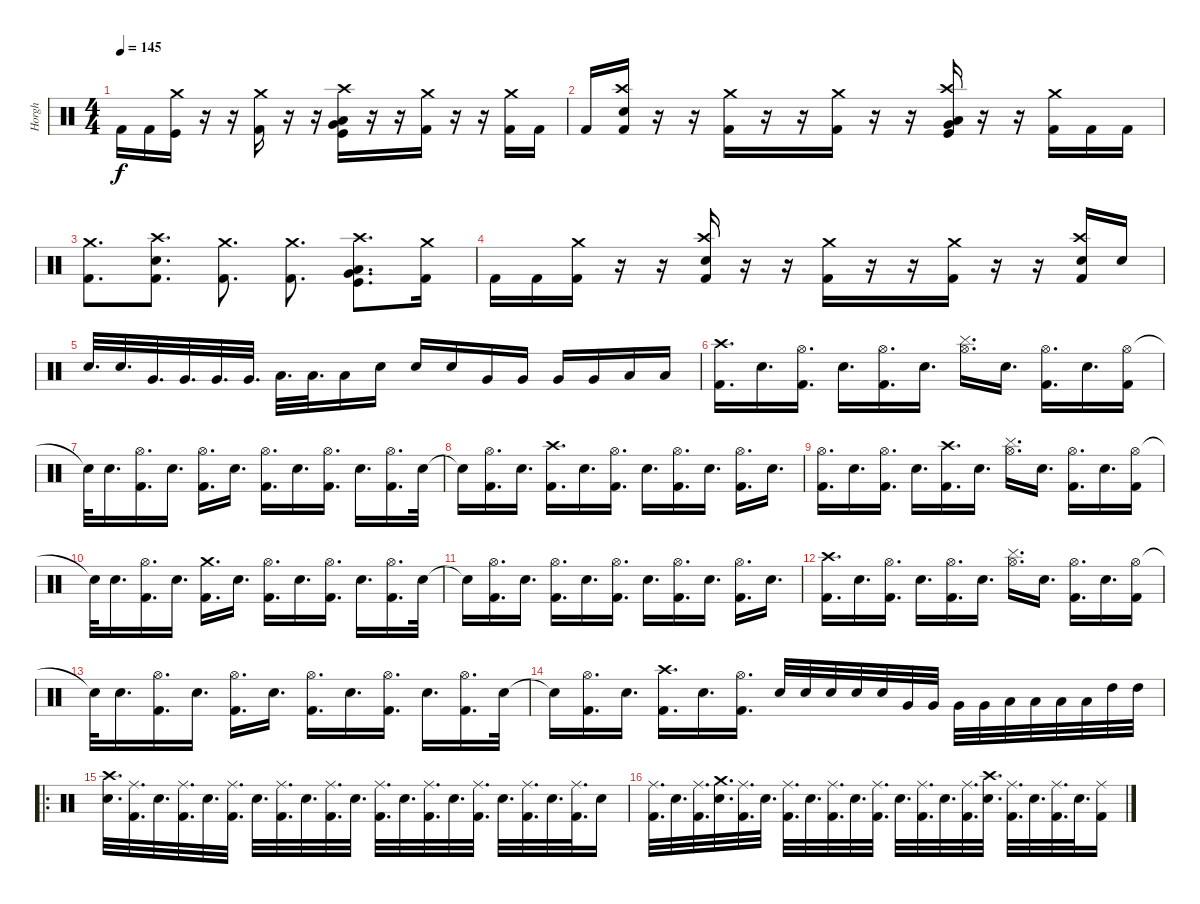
\track ("Horgh" "Horgh") {instrument percussion}
\staff {score}
\articulation defaults
\ts (4 4)
\tempo 145
\clef neutral
\ks c "Kick (hit) 2".16{dy f} "Kick (hit) 2".16
("Crash medium (hit)" "Kick (hit)").16 r.16 r.16 ("Crash medium (hit)" "Kick (hit) 2").16 r.16 r.16 ("Crash high (hit)" "Low Tom (hit)" "Very Low Tom (hit)" "Kick (hit)").16 r.16 r.16 ("Crash medium (hit)" "Kick (hit) 2").16 r.16 r.16 ("Crash medium (hit)" "Kick (hit) 2").16 "Kick (hit) 2".16 |
"Kick (hit) 2".16 ("Crash high (hit)" "Snare (hit) 2" "Kick (hit) 2").16 r.16 r.16 ("Crash medium (hit)" "Kick (hit) 2").16 r.16 r.16 ("Crash medium (hit)" "Kick (hit) 2").16 r.16 r.16 ("Crash high (hit)" "Low Tom (hit)" "Very Low Tom (hit)" "Kick (hit)").16 r.16 r.16 ("Crash medium (hit)" "Kick (hit) 2").16 "Kick (hit) 2".16 "Kick (hit) 2".16 |
("Crash medium (hit)" "Kick (hit) 2").8{d} ("Crash high (hit)" "Snare (hit) 2" "Kick (hit) 2").8{d} ("Crash medium (hit)" "Kick (hit) 2").8{d} ("Crash medium (hit)" "Kick (hit) 2").8{d} ("Crash high (hit)" "Low Tom (hit)" "Very Low Tom (hit)" "Kick (hit)").8{d} ("Crash medium (hit)" "Kick (hit) 2").16 |
"Kick (hit) 2".16 "Kick (hit) 2".16 ("Crash medium (hit)" "Kick (hit) 2").16 r.16 r.16 ("Crash high (hit)" "Snare (hit) 2" "Kick (hit) 2").16 r.16 r.16 ("Crash medium (hit)" "Kick (hit) 2").16 r.16 r.16 ("Crash medium (hit)" "Kick (hit) 2").16 r.16 r.16 ("Crash high (hit)" "Snare (hit) 2" "Kick (hit) 2").16 "Snare (hit) 2".16 |
"Snare (hit) 2".32{d} "Snare (hit) 2".32{d} "Very Low Tom (hit)".32{d} "Very Low Tom (hit)".32{d} "Very Low Tom (hit)".32{d} "Very Low Tom (hit)".32{d} "Low Tom (hit)".32{d} "Low Tom (hit)".32{d} "Low Tom (hit)".16 "Snare (hit) 2".16 "Snare (hit) 2".16 "Snare (hit) 2".16 "Very Low Tom (hit)".16 "Very Low Tom (hit)".16 "Very Low Tom (hit)".16 "Very Low Tom (hit)".16 "Low Tom (hit)".16 "Low Tom (hit)".16 |
("Crash high (hit)" "Kick (hit) 2").16{d} "Electric Snare (hit)".16{d} ("Hi-Hat (open)" "Kick (hit) 2").16{d} "Electric Snare (hit)".16{d} ("Hi-Hat (open)" "Kick (hit) 2").16{d} "Electric Snare (hit)".16{d} ("Hi-Hat (open)" "Cymbal (hit)").16{d} "Electric Snare (hit)".16{d} ("Hi-Hat (open)" "Kick (hit) 2").16{d} "Electric Snare (hit)".16{d} ("Hi-Hat (open)" "Kick (hit) 2").16 |
"Snare (hit)"{t}.32 "Electric Snare (hit)".16{d} ("Hi-Hat (open)" "Kick (hit) 2").16{d} "Electric Snare (hit)".16{d} ("Hi-Hat (open)" "Kick (hit) 2").16{d} "Electric Snare (hit)".16{d} ("Hi-Hat (open)" "Kick (hit) 2").16{d} "Electric Snare (hit)".16{d} ("Hi-Hat (open)" "Kick (hit) 2").16{d} "Electric Snare (hit)".16{d} ("Hi-Hat (open)" "Kick (hit) 2").16{d} "Electric Snare (hit)".32 |
"Electric Snare (hit)"{t}.16 ("Hi-Hat (open)" "Kick (hit) 2").16{d} "Electric Snare (hit)".16{d} ("Crash high (hit)" "Kick (hit) 2").16{d} "Electric Snare (hit)".16{d} ("Hi-Hat (open)" "Kick (hit) 2").16{d} "Electric Snare (hit)".16{d} ("Hi-Hat (open)" "Kick (hit) 2").16{d} "Electric Snare (hit)".16{d} ("Hi-Hat (open)" "Kick (hit) 2").16{d} "Electric Snare (hit)".16{d} |
("Hi-Hat (open)" "Kick (hit) 2").16{d} "Electric Snare (hit)".16{d} ("Hi-Hat (open)" "Kick (hit) 2").16{d} "Electric Snare (hit)".16{d} ("Crash high (hit)" "Kick (hit) 2").16{d} "Electric Snare (hit)".16{d} ("Hi-Hat (open)" "Cymbal (hit)").16{d} "Electric Snare (hit)".16{d} ("Hi-Hat (open)" "Kick (hit) 2").16{d} "Electric Snare (hit)".16{d} ("Hi-Hat (open)" "Kick (hit) 2").16 |
"Snare (hit)"{t}.32 "Electric Snare (hit)".16{d} ("Hi-Hat (open)" "Kick (hit) 2").16{d} "Electric Snare (hit)".16{d} ("Crash medium (hit)" "Kick (hit) 2").16{d} "Electric Snare (hit)".16{d} ("Hi-Hat (open)" "Kick (hit) 2").16{d} "Electric Snare (hit)".16{d} ("Hi-Hat (open)" "Kick (hit) 2").16{d} "Electric Snare (hit)".16{d} ("Hi-Hat (open)" "Kick (hit) 2").16{d} "Electric Snare (hit)".32 |
"Electric Snare (hit)"{t}.16 ("Hi-Hat (open)" "Kick (hit) 2").16{d} "Electric Snare (hit)".16{d} ("Hi-Hat (open)" "Kick (hit) 2").16{d} "Electric Snare (hit)".16{d} ("Hi-Hat (open)" "Kick (hit) 2").16{d} "Electric Snare (hit)".16{d} ("Hi-Hat (open)" "Kick (hit) 2").16{d} "Electric Snare (hit)".16{d} ("Hi-Hat (open)" "Kick (hit) 2").16{d} "Electric Snare (hit)".16{d} |
("Crash high (hit)" "Kick (hit) 2").16{d} "Electric Snare (hit)".16{d} ("Hi-Hat (open)" "Kick (hit) 2").16{d} "Electric Snare (hit)".16{d} ("Hi-Hat (open)" "Kick (hit) 2").16{d} "Electric Snare (hit)".16{d} ("Hi-Hat (open)" "Cymbal (hit)").16{d} "Electric Snare (hit)".16{d} ("Hi-Hat (open)" "Kick (hit) 2").16{d} "Electric Snare (hit)".16{d} ("Hi-Hat (open)" "Kick (hit) 2").16 |
"Snare (hit)"{t}.32 "Electric Snare (hit)".16{d} ("Hi-Hat (open)" "Kick (hit) 2").16{d} "Electric Snare (hit)".16{d} ("Hi-Hat (open)" "Kick (hit) 2").16{d} "Electric Snare (hit)".16{d} ("Hi-Hat (open)" "Kick (hit) 2").16{d} "Electric Snare (hit)".16{d} ("Hi-Hat (open)" "Kick (hit) 2").16{d} "Electric Snare (hit)".16{d} ("Hi-Hat (open)" "Kick (hit) 2").16{d} "Electric Snare (hit)".32 |
"Electric Snare (hit)"{t}.16 ("Hi-Hat (open)" "Kick (hit) 2").16{d} "Electric Snare (hit)".16{d} ("Crash high (hit)" "Kick (hit) 2").16{d} "Electric Snare (hit)".16{d} ("Hi-Hat (open)" "Kick (hit) 2").16{d} "Electric Snare (hit)".32 "Electric Snare (hit)".32 "Electric Snare (hit)".32 "Electric Snare (hit)".32 "Electric Snare (hit)".32 "Very Low Tom (hit)".32 "Very Low Tom (hit)".32 "Very Low Tom (hit)".32 "Very Low Tom (hit)".32 "Low Tom (hit)".32 "Low Tom (hit)".32 "Low Tom (hit)".32 "Low Tom (hit)".32 "High Tom (hit)".32 "High Tom (hit)".32 |
\ro
("Crash high (hit)" "Electric Snare (hit)").32{d} ("Ride (middle)" "Kick (hit) 2").32{d} "Electric Snare (hit)".32{d} ("Ride (middle)" "Kick (hit) 2").32{d} "Electric Snare (hit)".32{d} ("Ride (middle)" "Kick (hit) 2").32{d} "Electric Snare (hit)".32{d} ("Ride (middle)" "Kick (hit) 2").32{d} "Electric Snare (hit)".32{d} ("Ride (middle)" "Kick (hit) 2").32{d} "Electric Snare (hit)".32{d} ("Ride (middle)" "Kick (hit) 2").32{d} "Electric Snare (hit)".32{d} ("Ride (middle)" "Kick (hit) 2").32{d} "Electric Snare (hit)".32{d} ("Ride (middle)" "Kick (hit) 2").32{d} "Electric Snare (hit)".32{d} ("Ride (middle)" "Kick (hit) 2").32{d} "Electric Snare (hit)".32{d} ("Ride (middle)" "Kick (hit) 2").32{d} "Electric Snare (hit)".16 |
("Ride (middle)" "Kick (hit) 2").32{d} "Electric Snare (hit)".32{d} ("Ride (middle)" "Kick (hit) 2").32{d} ("Crash medium (hit)" "Electric Snare (hit)").32{d} ("Ride (middle)" "Kick (hit) 2").32{d} "Electric Snare (hit)".32{d} ("Ride (middle)" "Kick (hit) 2").32{d} "Electric Snare (hit)".32{d} ("Ride (middle)" "Kick (hit) 2").32{d} "Electric Snare (hit)".32{d} ("Ride (middle)" "Kick (hit) 2").32{d} "Electric Snare (hit)".32{d} ("Ride (middle)" "Kick (hit) 2").32{d} "Electric Snare (hit)".32{d} ("Ride (middle)" "Kick (hit) 2").32{d} ("Crash high (hit)" "Electric Snare (hit)").32{d} ("Ride (middle)" "Kick (hit) 2").32{d} "Electric Snare (hit)".32{d} ("Ride (middle)" "Kick (hit) 2").32{d} "Electric Snare (hit)".32{d} ("Ride (middle)" "Kick (hit) 2").16
